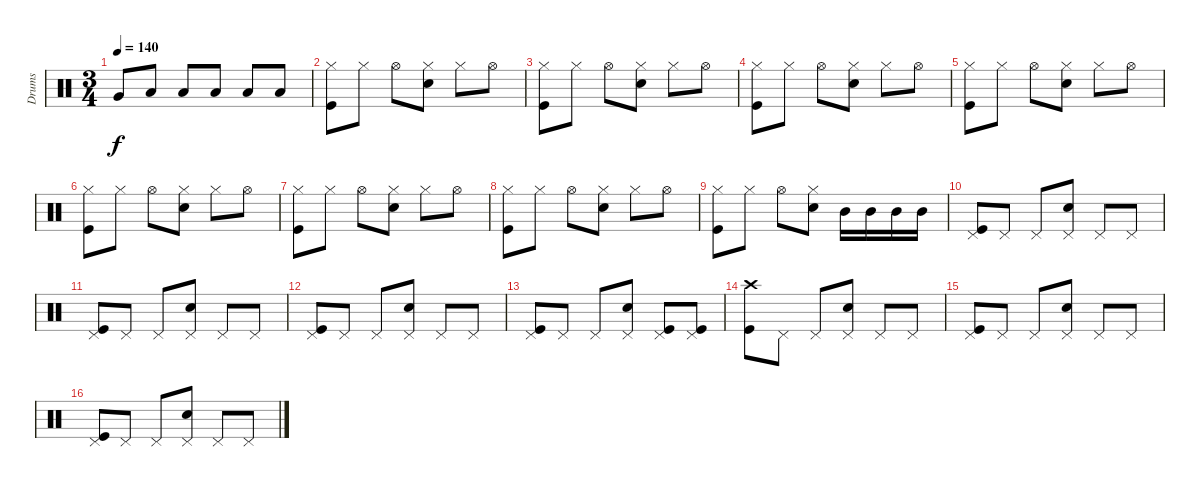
\track ("Drums" "Drums") {instrument percussion}
\staff {score}
\articulation defaults
\ts (3 4)
\tempo 140
\clef neutral
\ks c "Very Low Tom (hit)".8{dy f} "Low Tom (hit)".8 "Low Tom (hit)".8 "Low Tom (hit)".8 "Low Tom (hit)".8 "Low Tom (hit)".8
|
("Kick (hit)" "Hi-Hat (closed)").8 "Hi-Hat (closed)".8 "Hi-Hat (open)".8 ("Snare (hit) 2" "Hi-Hat (closed)").8 "Hi-Hat (closed)".8 "Hi-Hat (open)".8 |
("Kick (hit)" "Hi-Hat (closed)").8 "Hi-Hat (closed)".8 "Hi-Hat (open)".8 ("Snare (hit) 2" "Hi-Hat (closed)").8 "Hi-Hat (closed)".8 "Hi-Hat (open)".8 |
("Kick (hit)" "Hi-Hat (closed)").8 "Hi-Hat (closed)".8 "Hi-Hat (open)".8 ("Snare (hit) 2" "Hi-Hat (closed)").8 "Hi-Hat (closed)".8 "Hi-Hat (open)".8 |
("Kick (hit)" "Hi-Hat (closed)").8 "Hi-Hat (closed)".8 "Hi-Hat (open)".8 ("Snare (hit) 2" "Hi-Hat (closed)").8 "Hi-Hat (closed)".8 "Hi-Hat (open)".8 |
("Kick (hit)" "Hi-Hat (closed)").8 "Hi-Hat (closed)".8 "Hi-Hat (open)".8 ("Snare (hit) 2" "Hi-Hat (closed)").8 "Hi-Hat (closed)".8 "Hi-Hat (open)".8 |
("Kick (hit)" "Hi-Hat (closed)").8 "Hi-Hat (closed)".8 "Hi-Hat (open)".8 ("Snare (hit) 2" "Hi-Hat (closed)").8 "Hi-Hat (closed)".8 "Hi-Hat (open)".8 |
("Kick (hit)" "Hi-Hat (closed)").8 "Hi-Hat (closed)".8 "Hi-Hat (open)".8 ("Snare (hit) 2" "Hi-Hat (closed)").8 "Hi-Hat (closed)".8 "Hi-Hat (open)".8 |
("Kick (hit)" "Hi-Hat (closed)").8 "Hi-Hat (closed)".8 "Hi-Hat (open)".8 ("Snare (hit) 2" "Hi-Hat (closed)").8 "Mid Tom (hit)".16 "Mid Tom (hit)".16 "Mid Tom (hit)".16 "Mid Tom (hit)".16 |
("Kick (hit)" "Pedal Hi-Hat (hit)").8 "Pedal Hi-Hat (hit)".8 "Pedal Hi-Hat (hit)".8 ("Snare (hit) 2" "Pedal Hi-Hat (hit)").8 "Pedal Hi-Hat (hit)".8 "Pedal Hi-Hat (hit)".8 |
("Kick (hit)" "Pedal Hi-Hat (hit)").8 "Pedal Hi-Hat (hit)".8 "Pedal Hi-Hat (hit)".8 ("Snare (hit) 2" "Pedal Hi-Hat (hit)").8 "Pedal Hi-Hat (hit)".8 "Pedal Hi-Hat (hit)".8 |
("Kick (hit)" "Pedal Hi-Hat (hit)").8 "Pedal Hi-Hat (hit)".8 "Pedal Hi-Hat (hit)".8 ("Snare (hit) 2" "Pedal Hi-Hat (hit)").8 "Pedal Hi-Hat (hit)".8 "Pedal Hi-Hat (hit)".8 |
("Kick (hit)" "Pedal Hi-Hat (hit)").8 "Pedal Hi-Hat (hit)".8 "Pedal Hi-Hat (hit)".8 ("Snare (hit) 2" "Pedal Hi-Hat (hit)").8 ("Kick (hit)" "Pedal Hi-Hat (hit)").8 ("Kick (hit)" "Pedal Hi-Hat (hit)").8 |
("Kick (hit)" "Crash high (hit)").8 "Pedal Hi-Hat (hit)".8 "Pedal Hi-Hat (hit)".8 ("Snare (hit) 2" "Pedal Hi-Hat (hit)").8 "Pedal Hi-Hat (hit)".8 "Pedal Hi-Hat (hit)".8 |
("Kick (hit)" "Pedal Hi-Hat (hit)").8 "Pedal Hi-Hat (hit)".8 "Pedal Hi-Hat (hit)".8 ("Snare (hit) 2" "Pedal Hi-Hat (hit)").8 "Pedal Hi-Hat (hit)".8 "Pedal Hi-Hat (hit)".8 |
("Kick (hit)" "Pedal Hi-Hat (hit)").8 "Pedal Hi-Hat (hit)".8 "Pedal Hi-Hat (hit)".8 ("Snare (hit) 2" "Pedal Hi-Hat (hit)").8 "Pedal Hi-Hat (hit)".8 "Pedal Hi-Hat (hit)".8
